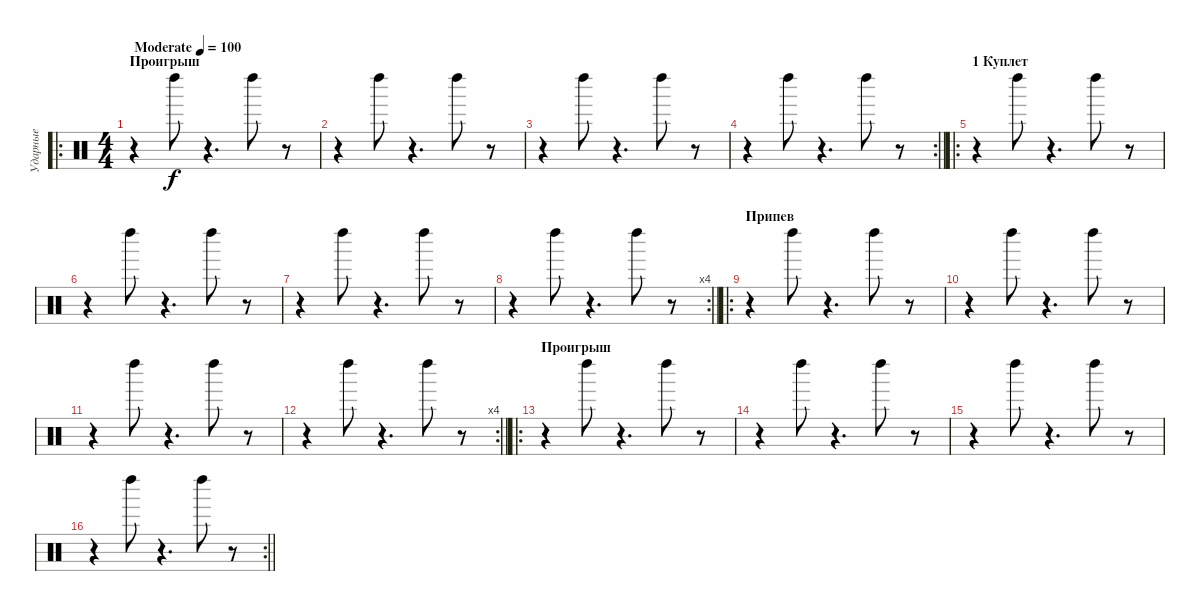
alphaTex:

\track ("Ударные" "Ударные") {instrument percussion}
\staff {score}
\articulation defaults
\ro
\ts (4 4)
\section ("" "Проигрыш")
\tempo (100 "Moderate")
\clef neutral
\ks c
r.4{dy f} "Left Maraca (hit)".8 r.4{d} "Left Maraca (hit)".8 r.8 |
r.4 "Left Maraca (hit)".8 r.4{d} "Left Maraca (hit)".8 r.8 |
r.4 "Left Maraca (hit)".8 r.4{d} "Left Maraca (hit)".8 r.8 |
\rc 2
\barLineRight lightlight
r.4 "Left Maraca (hit)".8 r.4{d} "Left Maraca (hit)".8 r.8 |
\ro
\section ("" "1 Куплет")
r.4 "Left Maraca (hit)".8 r.4{d} "Left Maraca (hit)".8 r.8 |
r.4 "Left Maraca (hit)".8 r.4{d} "Left Maraca (hit)".8 r.8 |
r.4 "Left Maraca (hit)".8 r.4{d} "Left Maraca (hit)".8 r.8 |
\rc 4
\barLineRight lightlight
r.4 "Left Maraca (hit)".8 r.4{d} "Left Maraca (hit)".8 r.8 |
\ro
\section ("" "Припев")
r.4 "Left Maraca (hit)".8 r.4{d} "Left Maraca (hit)".8 r.8 |
r.4 "Left Maraca (hit)".8 r.4{d} "Left Maraca (hit)".8 r.8 |
r.4 "Left Maraca (hit)".8 r.4{d} "Left Maraca (hit)".8 r.8 |
\rc 4
\barLineRight lightlight
r.4 "Left Maraca (hit)".8 r.4{d} "Left Maraca (hit)".8 r.8 |
\ro
\section ("" "Проигрыш")
r.4 "Left Maraca (hit)".8 r.4{d} "Left Maraca (hit)".8 r.8 |
r.4 "Left Maraca (hit)".8 r.4{d} "Left Maraca (hit)".8 r.8 |
r.4 "Left Maraca (hit)".8 r.4{d} "Left Maraca (hit)".8 r.8 |
\rc 2
\barLineRight lightlight
r.4 "Left Maraca (hit)".8 r.4{d} "Left Maraca (hit)".8 r.8
